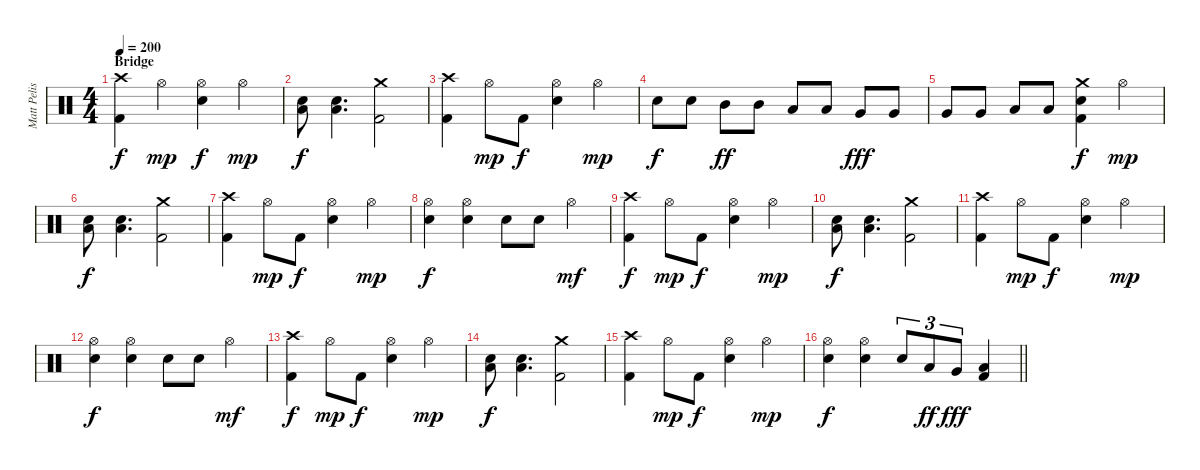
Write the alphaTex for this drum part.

\track ("Matt Pelissier" "Matt Pelis") {instrument percussion}
\staff {score}
\articulation defaults
\ts (4 4)
\section ("" "Bridge")
\tempo 200
\clef neutral
\ks c
("Crash high (hit)" "Kick (hit) 2").4{dy f} "Hi-Hat (open)".4{dy mp} ("Hi-Hat (open)" "Snare (hit) 2").4{dy f} "Hi-Hat (open)".4{dy mp} |
("Low Tom (hit)" "Snare (hit) 2").8{dy f} ("Low Tom (hit)" "Snare (hit) 2").4{d} ("Crash medium (hit)" "Kick (hit) 2").2 |
("Crash high (hit)" "Kick (hit) 2").4 "Hi-Hat (open)".8{dy mp} "Kick (hit) 2".8{dy f} ("Hi-Hat (open)" "Snare (hit) 2").4 "Hi-Hat (open)".4{dy mp} |
"Snare (hit) 2".8{dy f} "Snare (hit) 2".8 "Mid Tom (hit)".8{dy ff} "Mid Tom (hit)".8 "Low Tom (hit)".8 "Low Tom (hit)".8 "Very Low Tom (hit)".8{dy fff} "Very Low Tom (hit)".8 |
"Very Low Tom (hit)".8 "Very Low Tom (hit)".8 "Low Floor Tom (hit)".8 "Low Floor Tom (hit)".8 ("Crash medium (hit)" "Snare (hit) 2" "Kick (hit) 2").4{dy f} "Hi-Hat (open)".4{dy mp} |
("Low Tom (hit)" "Snare (hit) 2").8{dy f} ("Low Tom (hit)" "Snare (hit) 2").4{d} ("Crash medium (hit)" "Kick (hit) 2").2 |
("Crash high (hit)" "Kick (hit) 2").4 "Hi-Hat (open)".8{dy mp} "Kick (hit) 2".8{dy f} ("Hi-Hat (open)" "Snare (hit) 2").4 "Hi-Hat (open)".4{dy mp} |
("Hi-Hat (open)" "Snare (hit) 2").4{dy f} ("Hi-Hat (open)" "Snare (hit) 2").4 "Snare (hit) 2".8 "Snare (hit) 2".8 "Hi-Hat (open)".4{dy mf} |
("Crash high (hit)" "Kick (hit) 2").4{dy f} "Hi-Hat (open)".8{dy mp} "Kick (hit) 2".8{dy f} ("Hi-Hat (open)" "Snare (hit) 2").4 "Hi-Hat (open)".4{dy mp} |
("Low Tom (hit)" "Snare (hit) 2").8{dy f} ("Low Tom (hit)" "Snare (hit) 2").4{d} ("Crash medium (hit)" "Kick (hit) 2").2 |
("Crash high (hit)" "Kick (hit) 2").4 "Hi-Hat (open)".8{dy mp} "Kick (hit) 2".8{dy f} ("Hi-Hat (open)" "Snare (hit) 2").4 "Hi-Hat (open)".4{dy mp} |
("Hi-Hat (open)" "Snare (hit) 2").4{dy f} ("Hi-Hat (open)" "Snare (hit) 2").4 "Snare (hit) 2".8 "Snare (hit) 2".8 "Hi-Hat (open)".4{dy mf} |
("Crash high (hit)" "Kick (hit) 2").4{dy f} "Hi-Hat (open)".8{dy mp} "Kick (hit) 2".8{dy f} ("Hi-Hat (open)" "Snare (hit) 2").4 "Hi-Hat (open)".4{dy mp} |
("Low Tom (hit)" "Snare (hit) 2").8{dy f} ("Low Tom (hit)" "Snare (hit) 2").4{d} ("Crash medium (hit)" "Kick (hit) 2").2 |
("Crash high (hit)" "Kick (hit) 2").4 "Hi-Hat (open)".8{dy mp} "Kick (hit) 2".8{dy f} ("Hi-Hat (open)" "Snare (hit) 2").4 "Hi-Hat (open)".4{dy mp} |
\barLineRight lightlight
("Hi-Hat (open)" "Snare (hit) 2").4{dy f} ("Hi-Hat (open)" "Snare (hit) 2").4 "Snare (hit) 2".8{tu (3 2)} "Low Tom (hit)".8{tu (3 2) dy ff} "Very Low Tom (hit)".8{tu (3 2) dy fff} ("Low Floor Tom (hit)" "Kick (hit) 2").4
